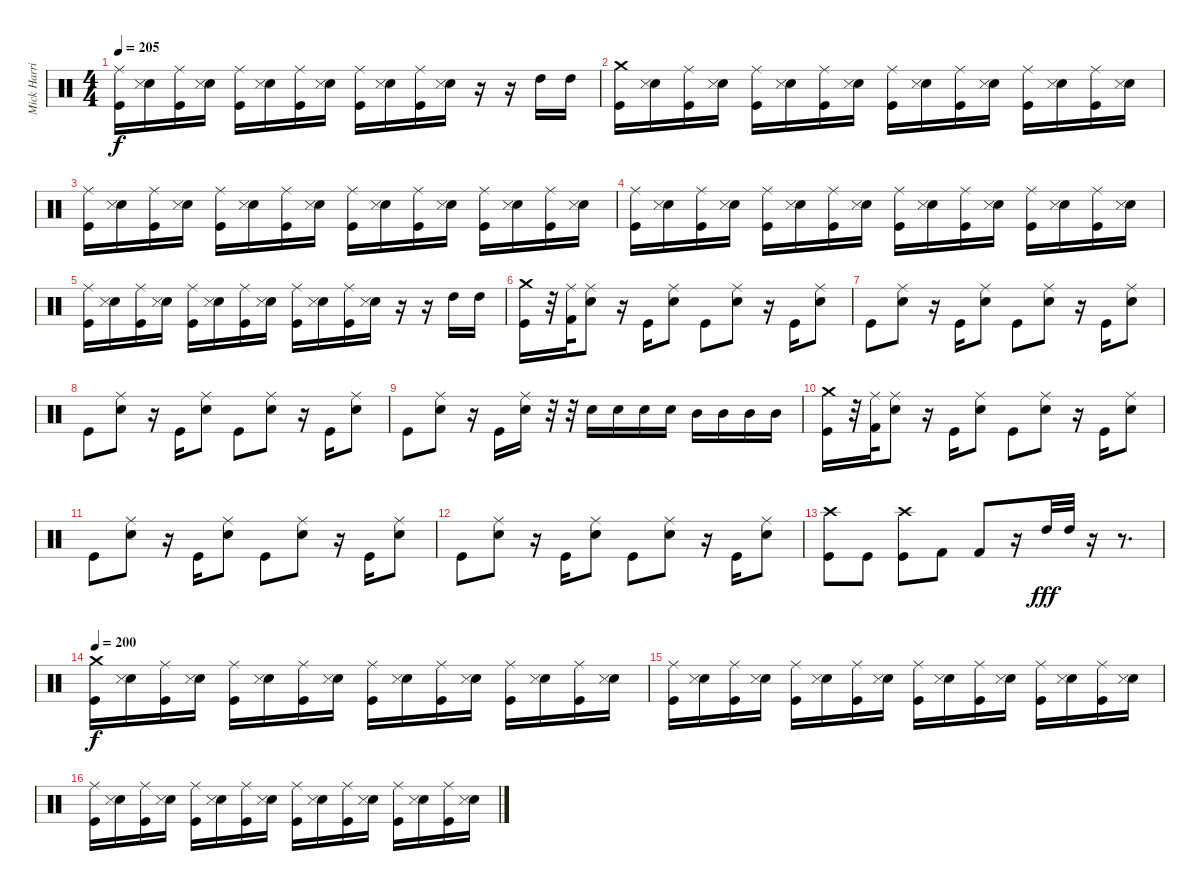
\track ("Mick Harris (Drums)" "Mick Harri") {instrument percussion}
\staff {score}
\articulation defaults
\ts (4 4)
\tempo 205
\clef neutral
\ks c
("Kick (hit)" "Ride (middle)").16{dy f} ("Electric Snare (hit)" "Snare (side stick) 3").16 ("Kick (hit)" "Ride (middle)").16 ("Electric Snare (hit)" "Snare (side stick) 3").16 ("Kick (hit)" "Ride (middle)").16 ("Electric Snare (hit)" "Snare (side stick) 3").16 ("Kick (hit)" "Ride (middle)").16 ("Electric Snare (hit)" "Snare (side stick) 3").16 ("Kick (hit)" "Ride (middle)").16 ("Electric Snare (hit)" "Snare (side stick) 3").16 ("Kick (hit)" "Ride (middle)").16 ("Electric Snare (hit)" "Snare (side stick) 3").16 r.16 r.16 "High Tom (hit)".16 "High Tom (hit)".16 |
("Kick (hit)" "Crash medium (hit)").16 ("Electric Snare (hit)" "Snare (side stick) 3").16 ("Kick (hit)" "Ride (middle)").16 ("Electric Snare (hit)" "Snare (side stick) 3").16 ("Kick (hit)" "Ride (middle)").16 ("Electric Snare (hit)" "Snare (side stick) 3").16 ("Kick (hit)" "Ride (middle)").16 ("Electric Snare (hit)" "Snare (side stick) 3").16 ("Kick (hit)" "Ride (middle)").16 ("Electric Snare (hit)" "Snare (side stick) 3").16 ("Kick (hit)" "Ride (middle)").16 ("Electric Snare (hit)" "Snare (side stick) 3").16 ("Kick (hit)" "Ride (middle)").16 ("Electric Snare (hit)" "Snare (side stick) 3").16 ("Kick (hit)" "Ride (middle)").16 ("Electric Snare (hit)" "Snare (side stick) 3").16 |
("Kick (hit)" "Ride (middle)").16 ("Electric Snare (hit)" "Snare (side stick) 3").16 ("Kick (hit)" "Ride (middle)").16 ("Electric Snare (hit)" "Snare (side stick) 3").16 ("Kick (hit)" "Ride (middle)").16 ("Electric Snare (hit)" "Snare (side stick) 3").16 ("Kick (hit)" "Ride (middle)").16 ("Electric Snare (hit)" "Snare (side stick) 3").16 ("Kick (hit)" "Ride (middle)").16 ("Electric Snare (hit)" "Snare (side stick) 3").16 ("Kick (hit)" "Ride (middle)").16 ("Electric Snare (hit)" "Snare (side stick) 3").16 ("Kick (hit)" "Ride (middle)").16 ("Electric Snare (hit)" "Snare (side stick) 3").16 ("Kick (hit)" "Ride (middle)").16 ("Electric Snare (hit)" "Snare (side stick) 3").16 |
("Kick (hit)" "Ride (middle)").16 ("Electric Snare (hit)" "Snare (side stick) 3").16 ("Kick (hit)" "Ride (middle)").16 ("Electric Snare (hit)" "Snare (side stick) 3").16 ("Kick (hit)" "Ride (middle)").16 ("Electric Snare (hit)" "Snare (side stick) 3").16 ("Kick (hit)" "Ride (middle)").16 ("Electric Snare (hit)" "Snare (side stick) 3").16 ("Kick (hit)" "Ride (middle)").16 ("Electric Snare (hit)" "Snare (side stick) 3").16 ("Kick (hit)" "Ride (middle)").16 ("Electric Snare (hit)" "Snare (side stick) 3").16 ("Kick (hit)" "Ride (middle)").16 ("Electric Snare (hit)" "Snare (side stick) 3").16 ("Kick (hit)" "Ride (middle)").16 ("Electric Snare (hit)" "Snare (side stick) 3").16 |
("Kick (hit)" "Ride (middle)").16 ("Electric Snare (hit)" "Snare (side stick) 3").16 ("Kick (hit)" "Ride (middle)").16 ("Electric Snare (hit)" "Snare (side stick) 3").16 ("Kick (hit)" "Ride (middle)").16 ("Electric Snare (hit)" "Snare (side stick) 3").16 ("Kick (hit)" "Ride (middle)").16 ("Electric Snare (hit)" "Snare (side stick) 3").16 ("Kick (hit)" "Ride (middle)").16 ("Electric Snare (hit)" "Snare (side stick) 3").16 ("Kick (hit)" "Ride (middle)").16 ("Electric Snare (hit)" "Snare (side stick) 3").16 r.16 r.16 "High Tom (hit)".16 "High Tom (hit)".16 |
("Kick (hit)" "Crash medium (hit)").16 r.32 ("Kick (hit) 2" "Ride (middle)").32 ("Electric Snare (hit)" "Ride (middle)").8 r.16 "Kick (hit)".16 ("Electric Snare (hit)" "Ride (middle)").8 "Kick (hit)".8 ("Electric Snare (hit)" "Ride (middle)").8 r.16 "Kick (hit)".16 ("Electric Snare (hit)" "Ride (middle)").8 |
"Kick (hit)".8 ("Electric Snare (hit)" "Ride (middle)").8 r.16 "Kick (hit)".16 ("Electric Snare (hit)" "Ride (middle)").8 "Kick (hit)".8 ("Electric Snare (hit)" "Ride (middle)").8 r.16 "Kick (hit)".16 ("Electric Snare (hit)" "Ride (middle)").8 |
"Kick (hit)".8 ("Electric Snare (hit)" "Ride (middle)").8 r.16 "Kick (hit)".16 ("Electric Snare (hit)" "Ride (middle)").8 "Kick (hit)".8 ("Electric Snare (hit)" "Ride (middle)").8 r.16 "Kick (hit)".16 ("Electric Snare (hit)" "Ride (middle)").8 |
"Kick (hit)".8 ("Electric Snare (hit)" "Ride (middle)").8 r.16 "Kick (hit)".16 ("Electric Snare (hit)" "Ride (middle)").16 r.32 r.32 "Electric Snare (hit)".16 "Electric Snare (hit)".16 "Electric Snare (hit)".16 "Electric Snare (hit)".16 "Mid Tom (hit)".16 "Mid Tom (hit)".16 "Mid Tom (hit)".16 "Mid Tom (hit)".16 |
("Kick (hit)" "Crash medium (hit)").16 r.32 ("Kick (hit) 2" "Ride (middle)").32 ("Electric Snare (hit)" "Ride (middle)").8 r.16 "Kick (hit)".16 ("Electric Snare (hit)" "Ride (middle)").8 "Kick (hit)".8 ("Electric Snare (hit)" "Ride (middle)").8 r.16 "Kick (hit)".16 ("Electric Snare (hit)" "Ride (middle)").8 |
"Kick (hit)".8 ("Electric Snare (hit)" "Ride (middle)").8 r.16 "Kick (hit)".16 ("Electric Snare (hit)" "Ride (middle)").8 "Kick (hit)".8 ("Electric Snare (hit)" "Ride (middle)").8 r.16 "Kick (hit)".16 ("Electric Snare (hit)" "Ride (middle)").8 |
"Kick (hit)".8 ("Electric Snare (hit)" "Ride (middle)").8 r.16 "Kick (hit)".16 ("Electric Snare (hit)" "Ride (middle)").8 "Kick (hit)".8 ("Electric Snare (hit)" "Ride (middle)").8 r.16 "Kick (hit)".16 ("Electric Snare (hit)" "Ride (middle)").8 |
("Kick (hit)" "Crash high (hit)").8 "Kick (hit)".8 ("Kick (hit)" "Crash high (hit)").8 "Kick (hit) 2".8 "Kick (hit) 2".8 r.16 "High Tom (hit)".32{dy fff} "High Tom (hit)".32 r.16 r.8{d} |
\tempo 200
("Kick (hit)" "Crash medium (hit)").16{dy f} ("Electric Snare (hit)" "Snare (side stick) 3").16 ("Kick (hit)" "Ride (middle)").16 ("Electric Snare (hit)" "Snare (side stick) 3").16 ("Kick (hit)" "Ride (middle)").16 ("Electric Snare (hit)" "Snare (side stick) 3").16 ("Kick (hit)" "Ride (middle)").16 ("Electric Snare (hit)" "Snare (side stick) 3").16 ("Kick (hit)" "Ride (middle)").16 ("Electric Snare (hit)" "Snare (side stick) 3").16 ("Kick (hit)" "Ride (middle)").16 ("Electric Snare (hit)" "Snare (side stick) 3").16 ("Kick (hit)" "Ride (middle)").16 ("Electric Snare (hit)" "Snare (side stick) 3").16 ("Kick (hit)" "Ride (middle)").16 ("Electric Snare (hit)" "Snare (side stick) 3").16 |
("Kick (hit)" "Ride (middle)").16 ("Electric Snare (hit)" "Snare (side stick) 3").16 ("Kick (hit)" "Ride (middle)").16 ("Electric Snare (hit)" "Snare (side stick) 3").16 ("Kick (hit)" "Ride (middle)").16 ("Electric Snare (hit)" "Snare (side stick) 3").16 ("Kick (hit)" "Ride (middle)").16 ("Electric Snare (hit)" "Snare (side stick) 3").16 ("Kick (hit)" "Ride (middle)").16 ("Electric Snare (hit)" "Snare (side stick) 3").16 ("Kick (hit)" "Ride (middle)").16 ("Electric Snare (hit)" "Snare (side stick) 3").16 ("Kick (hit)" "Ride (middle)").16 ("Electric Snare (hit)" "Snare (side stick) 3").16 ("Kick (hit)" "Ride (middle)").16 ("Electric Snare (hit)" "Snare (side stick) 3").16 |
("Kick (hit)" "Ride (middle)").16 ("Electric Snare (hit)" "Snare (side stick) 3").16 ("Kick (hit)" "Ride (middle)").16 ("Electric Snare (hit)" "Snare (side stick) 3").16 ("Kick (hit)" "Ride (middle)").16 ("Electric Snare (hit)" "Snare (side stick) 3").16 ("Kick (hit)" "Ride (middle)").16 ("Electric Snare (hit)" "Snare (side stick) 3").16 ("Kick (hit)" "Ride (middle)").16 ("Electric Snare (hit)" "Snare (side stick) 3").16 ("Kick (hit)" "Ride (middle)").16 ("Electric Snare (hit)" "Snare (side stick) 3").16 ("Kick (hit)" "Ride (middle)").16 ("Electric Snare (hit)" "Snare (side stick) 3").16 ("Kick (hit)" "Ride (middle)").16 ("Electric Snare (hit)" "Snare (side stick) 3").16
